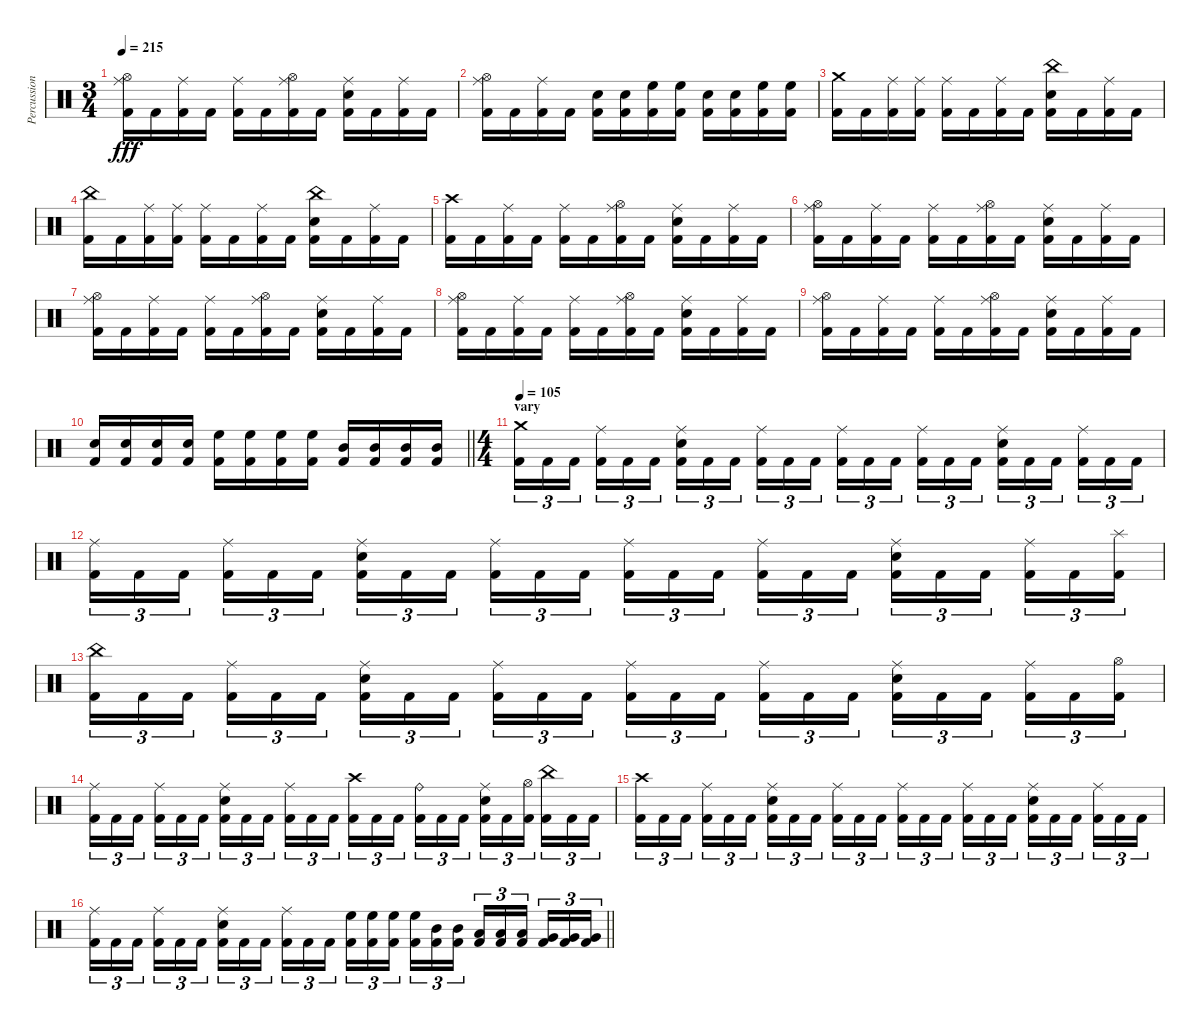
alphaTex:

\track ("Percussion" "Percussion") {instrument percussion}
\staff {score}
\articulation defaults
\ts (3 4)
\tempo 215
\clef neutral
\ks c
("Ride (middle)" "Hi-Hat (open)" "Kick (hit) 2").16{dy fff} "Kick (hit) 2".16 ("Ride (middle)" "Kick (hit) 2").16 "Kick (hit) 2".16 ("Ride (middle)" "Kick (hit) 2").16 "Kick (hit) 2".16 ("Ride (middle)" "Hi-Hat (open)" "Kick (hit) 2").16 "Kick (hit) 2".16 ("Ride (middle)" "Snare (hit) 2" "Kick (hit) 2").16 "Kick (hit) 2".16 ("Ride (middle)" "Kick (hit) 2").16 "Kick (hit) 2".16 |
("Ride (middle)" "Hi-Hat (open)" "Kick (hit) 2").16 "Kick (hit) 2".16 ("Ride (middle)" "Kick (hit) 2").16 "Kick (hit) 2".16 ("Snare (hit) 2" "Kick (hit) 2").16 ("Snare (hit) 2" "Kick (hit) 2").16 ("High Floor Tom (hit)" "Kick (hit) 2").16 ("High Floor Tom (hit)" "Kick (hit) 2").16 ("Snare (hit) 2" "Kick (hit) 2").16 ("Snare (hit) 2" "Kick (hit) 2").16 ("High Floor Tom (hit)" "Kick (hit) 2").16 ("High Floor Tom (hit)" "Kick (hit) 2").16 |
("Crash medium (hit)" "Kick (hit) 2").16 "Kick (hit) 2".16 ("Ride (middle)" "Kick (hit) 2").16 ("Ride (middle)" "Kick (hit) 2").16 ("Ride (middle)" "Kick (hit) 2").16 "Kick (hit) 2".16 ("Ride (middle)" "Kick (hit) 2").16 "Kick (hit) 2".16 ("China (hit)" "Snare (hit) 2" "Kick (hit) 2").16 "Kick (hit) 2".16 ("Ride (middle)" "Kick (hit) 2").16 "Kick (hit) 2".16 |
("China (hit)" "Kick (hit) 2").16 "Kick (hit) 2".16 ("Ride (middle)" "Kick (hit) 2").16 ("Ride (middle)" "Kick (hit) 2").16 ("Ride (middle)" "Kick (hit) 2").16 "Kick (hit) 2".16 ("Ride (middle)" "Kick (hit) 2").16 "Kick (hit) 2".16 ("China (hit)" "Snare (hit) 2" "Kick (hit) 2").16 "Kick (hit) 2".16 ("Ride (middle)" "Kick (hit) 2").16 "Kick (hit) 2".16 |
("Crash high (hit)" "Kick (hit) 2").16 "Kick (hit) 2".16 ("Ride (middle)" "Kick (hit) 2").16 "Kick (hit) 2".16 ("Ride (middle)" "Kick (hit) 2").16 "Kick (hit) 2".16 ("Ride (middle)" "Hi-Hat (open)" "Kick (hit) 2").16 "Kick (hit) 2".16 ("Ride (middle)" "Snare (hit) 2" "Kick (hit) 2").16 "Kick (hit) 2".16 ("Ride (middle)" "Kick (hit) 2").16 "Kick (hit) 2".16 |
("Ride (middle)" "Hi-Hat (open)" "Kick (hit) 2").16 "Kick (hit) 2".16 ("Ride (middle)" "Kick (hit) 2").16 "Kick (hit) 2".16 ("Ride (middle)" "Kick (hit) 2").16 "Kick (hit) 2".16 ("Ride (middle)" "Hi-Hat (open)" "Kick (hit) 2").16 "Kick (hit) 2".16 ("Ride (middle)" "Snare (hit) 2" "Kick (hit) 2").16 "Kick (hit) 2".16 ("Ride (middle)" "Kick (hit) 2").16 "Kick (hit) 2".16 |
("Ride (middle)" "Hi-Hat (open)" "Kick (hit) 2").16 "Kick (hit) 2".16 ("Ride (middle)" "Kick (hit) 2").16 "Kick (hit) 2".16 ("Ride (middle)" "Kick (hit) 2").16 "Kick (hit) 2".16 ("Ride (middle)" "Hi-Hat (open)" "Kick (hit) 2").16 "Kick (hit) 2".16 ("Ride (middle)" "Snare (hit) 2" "Kick (hit) 2").16 "Kick (hit) 2".16 ("Ride (middle)" "Kick (hit) 2").16 "Kick (hit) 2".16 |
("Ride (middle)" "Hi-Hat (open)" "Kick (hit) 2").16 "Kick (hit) 2".16 ("Ride (middle)" "Kick (hit) 2").16 "Kick (hit) 2".16 ("Ride (middle)" "Kick (hit) 2").16 "Kick (hit) 2".16 ("Ride (middle)" "Hi-Hat (open)" "Kick (hit) 2").16 "Kick (hit) 2".16 ("Ride (middle)" "Snare (hit) 2" "Kick (hit) 2").16 "Kick (hit) 2".16 ("Ride (middle)" "Kick (hit) 2").16 "Kick (hit) 2".16 |
("Ride (middle)" "Hi-Hat (open)" "Kick (hit) 2").16 "Kick (hit) 2".16 ("Ride (middle)" "Kick (hit) 2").16 "Kick (hit) 2".16 ("Ride (middle)" "Kick (hit) 2").16 "Kick (hit) 2".16 ("Ride (middle)" "Hi-Hat (open)" "Kick (hit) 2").16 "Kick (hit) 2".16 ("Ride (middle)" "Snare (hit) 2" "Kick (hit) 2").16 "Kick (hit) 2".16 ("Ride (middle)" "Kick (hit) 2").16 "Kick (hit) 2".16 |
\barLineRight lightlight
("Snare (hit) 2" "Kick (hit) 2").16 ("Snare (hit) 2" "Kick (hit) 2").16 ("Snare (hit) 2" "Kick (hit) 2").16 ("Snare (hit) 2" "Kick (hit) 2").16 ("High Floor Tom (hit)" "Kick (hit) 2").16 ("High Floor Tom (hit)" "Kick (hit) 2").16 ("High Floor Tom (hit)" "Kick (hit) 2").16 ("High Floor Tom (hit)" "Kick (hit) 2").16 ("Mid Tom (hit)" "Kick (hit) 2").16 ("Mid Tom (hit)" "Kick (hit) 2").16 ("Mid Tom (hit)" "Kick (hit) 2").16 ("Mid Tom (hit)" "Kick (hit) 2").16 |
\ts (4 4)
\section ("" "vary")
\tempo 105
("Crash medium (hit)" "Kick (hit) 2").16{tu (3 2)} "Kick (hit) 2".16{tu (3 2)} "Kick (hit) 2".16{tu (3 2) beam splitsecondary} ("Ride (middle)" "Kick (hit) 2").16{tu (3 2)} "Kick (hit) 2".16{tu (3 2)} "Kick (hit) 2".16{tu (3 2)} ("Ride (middle)" "Snare (hit) 2" "Kick (hit) 2").16{tu (3 2)} "Kick (hit) 2".16{tu (3 2)} "Kick (hit) 2".16{tu (3 2) beam splitsecondary} ("Ride (middle)" "Kick (hit) 2").16{tu (3 2)} "Kick (hit) 2".16{tu (3 2)} "Kick (hit) 2".16{tu (3 2)} ("Ride (middle)" "Kick (hit) 2").16{tu (3 2)} "Kick (hit) 2".16{tu (3 2)} "Kick (hit) 2".16{tu (3 2) beam splitsecondary} ("Ride (middle)" "Kick (hit) 2").16{tu (3 2)} "Kick (hit) 2".16{tu (3 2)} "Kick (hit) 2".16{tu (3 2)} ("Ride (middle)" "Snare (hit) 2" "Kick (hit) 2").16{tu (3 2)} "Kick (hit) 2".16{tu (3 2)} "Kick (hit) 2".16{tu (3 2) beam splitsecondary} ("Ride (middle)" "Kick (hit) 2").16{tu (3 2)} "Kick (hit) 2".16{tu (3 2)} "Kick (hit) 2".16{tu (3 2)} |
("Ride (middle)" "Kick (hit) 2").16{tu (3 2)} "Kick (hit) 2".16{tu (3 2)} "Kick (hit) 2".16{tu (3 2) beam splitsecondary} ("Ride (middle)" "Kick (hit) 2").16{tu (3 2)} "Kick (hit) 2".16{tu (3 2)} "Kick (hit) 2".16{tu (3 2)} ("Ride (middle)" "Snare (hit) 2" "Kick (hit) 2").16{tu (3 2)} "Kick (hit) 2".16{tu (3 2)} "Kick (hit) 2".16{tu (3 2) beam splitsecondary} ("Ride (middle)" "Kick (hit) 2").16{tu (3 2)} "Kick (hit) 2".16{tu (3 2)} "Kick (hit) 2".16{tu (3 2)} ("Ride (middle)" "Kick (hit) 2").16{tu (3 2)} "Kick (hit) 2".16{tu (3 2)} "Kick (hit) 2".16{tu (3 2) beam splitsecondary} ("Ride (middle)" "Kick (hit) 2").16{tu (3 2)} "Kick (hit) 2".16{tu (3 2)} "Kick (hit) 2".16{tu (3 2)} ("Ride (middle)" "Snare (hit) 2" "Kick (hit) 2").16{tu (3 2)} "Kick (hit) 2".16{tu (3 2)} "Kick (hit) 2".16{tu (3 2) beam splitsecondary} ("Ride (middle)" "Kick (hit) 2").16{tu (3 2)} "Kick (hit) 2".16{tu (3 2)} ("Splash (hit)" "Kick (hit) 2").16{tu (3 2)} |
("China (hit)" "Kick (hit) 2").16{tu (3 2)} "Kick (hit) 2".16{tu (3 2)} "Kick (hit) 2".16{tu (3 2) beam splitsecondary} ("Ride (middle)" "Kick (hit) 2").16{tu (3 2)} "Kick (hit) 2".16{tu (3 2)} "Kick (hit) 2".16{tu (3 2)} ("Ride (middle)" "Snare (hit) 2" "Kick (hit) 2").16{tu (3 2)} "Kick (hit) 2".16{tu (3 2)} "Kick (hit) 2".16{tu (3 2) beam splitsecondary} ("Ride (middle)" "Kick (hit) 2").16{tu (3 2)} "Kick (hit) 2".16{tu (3 2)} "Kick (hit) 2".16{tu (3 2)} ("Ride (middle)" "Kick (hit) 2").16{tu (3 2)} "Kick (hit) 2".16{tu (3 2)} "Kick (hit) 2".16{tu (3 2) beam splitsecondary} ("Ride (middle)" "Kick (hit) 2").16{tu (3 2)} "Kick (hit) 2".16{tu (3 2)} "Kick (hit) 2".16{tu (3 2)} ("Ride (middle)" "Snare (hit) 2" "Kick (hit) 2").16{tu (3 2)} "Kick (hit) 2".16{tu (3 2)} "Kick (hit) 2".16{tu (3 2) beam splitsecondary} ("Ride (middle)" "Kick (hit) 2").16{tu (3 2)} "Kick (hit) 2".16{tu (3 2)} ("Hi-Hat (open)" "Kick (hit) 2").16{tu (3 2)} |
("Ride (middle)" "Kick (hit) 2").16{tu (3 2)} "Kick (hit) 2".16{tu (3 2)} "Kick (hit) 2".16{tu (3 2) beam splitsecondary} ("Ride (middle)" "Kick (hit) 2").16{tu (3 2)} "Kick (hit) 2".16{tu (3 2)} "Kick (hit) 2".16{tu (3 2)} ("Ride (middle)" "Snare (hit) 2" "Kick (hit) 2").16{tu (3 2)} "Kick (hit) 2".16{tu (3 2)} "Kick (hit) 2".16{tu (3 2) beam splitsecondary} ("Ride (middle)" "Kick (hit) 2").16{tu (3 2)} "Kick (hit) 2".16{tu (3 2)} "Kick (hit) 2".16{tu (3 2)} ("Crash high (hit)" "Kick (hit) 2").16{tu (3 2)} "Kick (hit) 2".16{tu (3 2)} "Kick (hit) 2".16{tu (3 2) beam splitsecondary} ("Ride (bell)" "Kick (hit) 2").16{tu (3 2)} "Kick (hit) 2".16{tu (3 2)} "Kick (hit) 2".16{tu (3 2)} ("Ride (middle)" "Snare (hit) 2" "Kick (hit) 2").16{tu (3 2)} "Kick (hit) 2".16{tu (3 2)} ("Hi-Hat (open)" "Kick (hit) 2").16{tu (3 2) beam splitsecondary} ("China (hit)" "Kick (hit) 2").16{tu (3 2)} "Kick (hit) 2".16{tu (3 2)} "Kick (hit) 2".16{tu (3 2)} |
("Crash high (hit)" "Kick (hit) 2").16{tu (3 2)} "Kick (hit) 2".16{tu (3 2)} "Kick (hit) 2".16{tu (3 2) beam splitsecondary} ("Ride (middle)" "Kick (hit) 2").16{tu (3 2)} "Kick (hit) 2".16{tu (3 2)} "Kick (hit) 2".16{tu (3 2)} ("Ride (middle)" "Snare (hit) 2" "Kick (hit) 2").16{tu (3 2)} "Kick (hit) 2".16{tu (3 2)} "Kick (hit) 2".16{tu (3 2) beam splitsecondary} ("Ride (middle)" "Kick (hit) 2").16{tu (3 2)} "Kick (hit) 2".16{tu (3 2)} "Kick (hit) 2".16{tu (3 2)} ("Ride (middle)" "Kick (hit) 2").16{tu (3 2)} "Kick (hit) 2".16{tu (3 2)} "Kick (hit) 2".16{tu (3 2) beam splitsecondary} ("Ride (middle)" "Kick (hit) 2").16{tu (3 2)} "Kick (hit) 2".16{tu (3 2)} "Kick (hit) 2".16{tu (3 2)} ("Ride (middle)" "Snare (hit) 2" "Kick (hit) 2").16{tu (3 2)} "Kick (hit) 2".16{tu (3 2)} "Kick (hit) 2".16{tu (3 2) beam splitsecondary} ("Ride (middle)" "Kick (hit) 2").16{tu (3 2)} "Kick (hit) 2".16{tu (3 2)} "Kick (hit) 2".16{tu (3 2)} |
\barLineRight lightlight
("Ride (middle)" "Kick (hit) 2").16{tu (3 2)} "Kick (hit) 2".16{tu (3 2)} "Kick (hit) 2".16{tu (3 2) beam splitsecondary} ("Ride (middle)" "Kick (hit) 2").16{tu (3 2)} "Kick (hit) 2".16{tu (3 2)} "Kick (hit) 2".16{tu (3 2)} ("Ride (middle)" "Snare (hit) 2" "Kick (hit) 2").16{tu (3 2)} "Kick (hit) 2".16{tu (3 2)} "Kick (hit) 2".16{tu (3 2) beam splitsecondary} ("Ride (middle)" "Kick (hit) 2").16{tu (3 2)} "Kick (hit) 2".16{tu (3 2)} "Kick (hit) 2".16{tu (3 2)} ("High Floor Tom (hit)" "Kick (hit) 2").16{tu (3 2)} ("High Floor Tom (hit)" "Kick (hit) 2").16{tu (3 2)} ("High Floor Tom (hit)" "Kick (hit) 2").16{tu (3 2) beam splitsecondary} ("High Floor Tom (hit)" "Kick (hit) 2").16{tu (3 2)} ("Mid Tom (hit)" "Kick (hit) 2").16{tu (3 2)} ("Mid Tom (hit)" "Kick (hit) 2").16{tu (3 2)} ("Low Tom (hit)" "Kick (hit) 2").16{tu (3 2)} ("Low Tom (hit)" "Kick (hit) 2").16{tu (3 2)} ("Low Tom (hit)" "Kick (hit) 2").16{tu (3 2) beam splitsecondary} ("Very Low Tom (hit)" "Kick (hit) 2").16{tu (3 2)} ("Very Low Tom (hit)" "Kick (hit) 2").16{tu (3 2)} ("Very Low Tom (hit)" "Kick (hit) 2").16{tu (3 2)}
